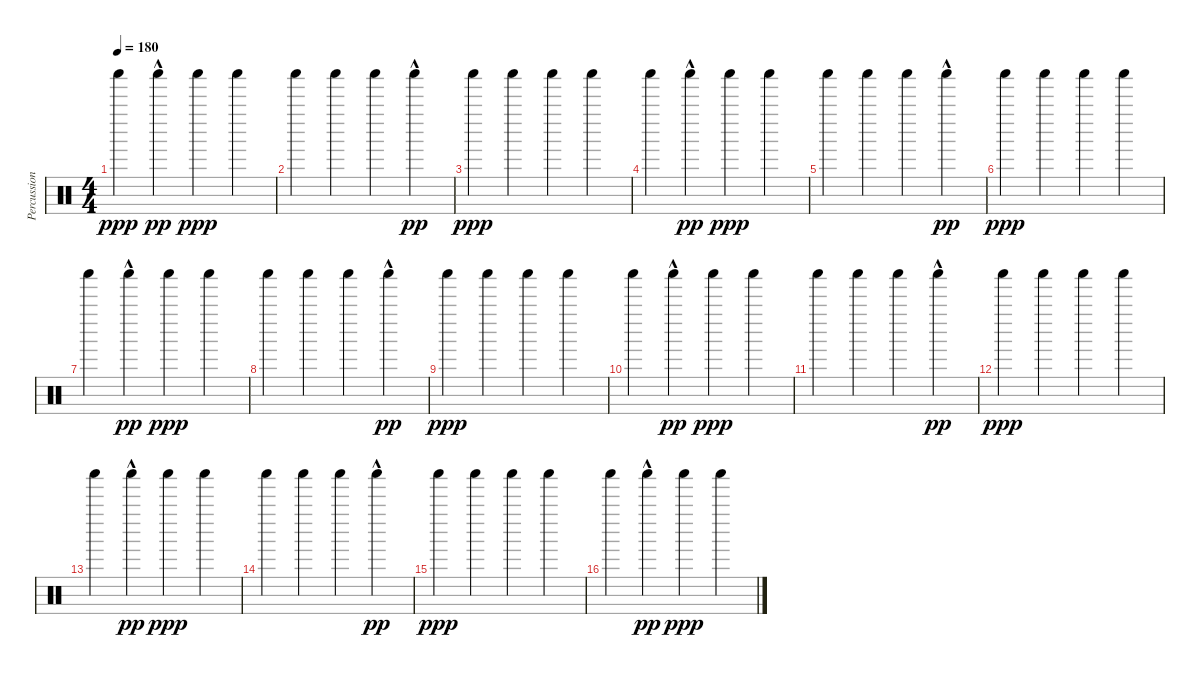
\track ("Percussion" "Percussion") {instrument percussion}
\staff {score}
\articulation defaults
\ts (4 4)
\tempo 180
\clef neutral
\ks c "Shaker (hit)".4{dy ppp} "Shaker (hit)"{hac}.4{dy pp} "Shaker (hit)".4{dy ppp} "Shaker (hit)".4
|
"Shaker (hit)".4 "Shaker (hit)".4 "Shaker (hit)".4 "Shaker (hit)"{hac}.4{dy pp} |
"Shaker (hit)".4{dy ppp} "Shaker (hit)".4 "Shaker (hit)".4 "Shaker (hit)".4 |
"Shaker (hit)".4 "Shaker (hit)"{hac}.4{dy pp} "Shaker (hit)".4{dy ppp} "Shaker (hit)".4 |
"Shaker (hit)".4 "Shaker (hit)".4 "Shaker (hit)".4 "Shaker (hit)"{hac}.4{dy pp} |
"Shaker (hit)".4{dy ppp} "Shaker (hit)".4 "Shaker (hit)".4 "Shaker (hit)".4 |
"Shaker (hit)".4 "Shaker (hit)"{hac}.4{dy pp} "Shaker (hit)".4{dy ppp} "Shaker (hit)".4 |
"Shaker (hit)".4 "Shaker (hit)".4 "Shaker (hit)".4 "Shaker (hit)"{hac}.4{dy pp} |
"Shaker (hit)".4{dy ppp} "Shaker (hit)".4 "Shaker (hit)".4 "Shaker (hit)".4 |
"Shaker (hit)".4 "Shaker (hit)"{hac}.4{dy pp} "Shaker (hit)".4{dy ppp} "Shaker (hit)".4 |
"Shaker (hit)".4 "Shaker (hit)".4 "Shaker (hit)".4 "Shaker (hit)"{hac}.4{dy pp} |
"Shaker (hit)".4{dy ppp} "Shaker (hit)".4 "Shaker (hit)".4 "Shaker (hit)".4 |
"Shaker (hit)".4 "Shaker (hit)"{hac}.4{dy pp} "Shaker (hit)".4{dy ppp} "Shaker (hit)".4 |
"Shaker (hit)".4 "Shaker (hit)".4 "Shaker (hit)".4 "Shaker (hit)"{hac}.4{dy pp} |
"Shaker (hit)".4{dy ppp} "Shaker (hit)".4 "Shaker (hit)".4 "Shaker (hit)".4 |
"Shaker (hit)".4 "Shaker (hit)"{hac}.4{dy pp} "Shaker (hit)".4{dy ppp} "Shaker (hit)".4
